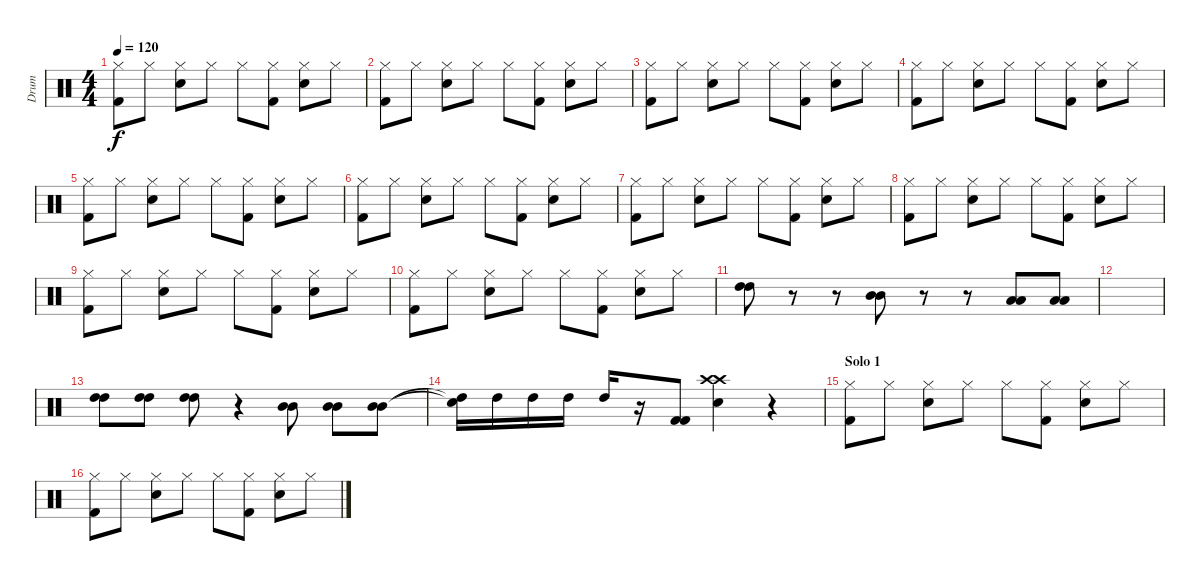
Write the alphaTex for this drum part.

\track ("Drum" "Drum") {instrument percussion}
\staff {score}
\articulation defaults
\ts (4 4)
\tempo 120
\clef neutral
\ks c
("Kick (hit) 2" "Hi-Hat (closed)").8{dy f} "Hi-Hat (closed)".8 ("Snare (hit) 2" "Hi-Hat (closed)").8 "Hi-Hat (closed)".8 "Hi-Hat (closed)".8 ("Kick (hit) 2" "Hi-Hat (closed)").8 ("Snare (hit) 2" "Hi-Hat (closed)").8 "Hi-Hat (closed)".8 |
("Kick (hit) 2" "Hi-Hat (closed)").8 "Hi-Hat (closed)".8 ("Snare (hit) 2" "Hi-Hat (closed)").8 "Hi-Hat (closed)".8 "Hi-Hat (closed)".8 ("Kick (hit) 2" "Hi-Hat (closed)").8 ("Snare (hit) 2" "Hi-Hat (closed)").8 "Hi-Hat (closed)".8 |
("Kick (hit) 2" "Hi-Hat (closed)").8 "Hi-Hat (closed)".8 ("Snare (hit) 2" "Hi-Hat (closed)").8 "Hi-Hat (closed)".8 "Hi-Hat (closed)".8 ("Kick (hit) 2" "Hi-Hat (closed)").8 ("Snare (hit) 2" "Hi-Hat (closed)").8 "Hi-Hat (closed)".8 |
("Kick (hit) 2" "Hi-Hat (closed)").8 "Hi-Hat (closed)".8 ("Snare (hit) 2" "Hi-Hat (closed)").8 "Hi-Hat (closed)".8 "Hi-Hat (closed)".8 ("Kick (hit) 2" "Hi-Hat (closed)").8 ("Snare (hit) 2" "Hi-Hat (closed)").8 "Hi-Hat (closed)".8 |
("Kick (hit) 2" "Hi-Hat (closed)").8 "Hi-Hat (closed)".8 ("Snare (hit) 2" "Hi-Hat (closed)").8 "Hi-Hat (closed)".8 "Hi-Hat (closed)".8 ("Kick (hit) 2" "Hi-Hat (closed)").8 ("Snare (hit) 2" "Hi-Hat (closed)").8 "Hi-Hat (closed)".8 |
("Kick (hit) 2" "Hi-Hat (closed)").8 "Hi-Hat (closed)".8 ("Snare (hit) 2" "Hi-Hat (closed)").8 "Hi-Hat (closed)".8 "Hi-Hat (closed)".8 ("Kick (hit) 2" "Hi-Hat (closed)").8 ("Snare (hit) 2" "Hi-Hat (closed)").8 "Hi-Hat (closed)".8 |
("Kick (hit) 2" "Hi-Hat (closed)").8 "Hi-Hat (closed)".8 ("Snare (hit) 2" "Hi-Hat (closed)").8 "Hi-Hat (closed)".8 "Hi-Hat (closed)".8 ("Kick (hit) 2" "Hi-Hat (closed)").8 ("Snare (hit) 2" "Hi-Hat (closed)").8 "Hi-Hat (closed)".8 |
("Kick (hit) 2" "Hi-Hat (closed)").8 "Hi-Hat (closed)".8 ("Snare (hit) 2" "Hi-Hat (closed)").8 "Hi-Hat (closed)".8 "Hi-Hat (closed)".8 ("Kick (hit) 2" "Hi-Hat (closed)").8 ("Snare (hit) 2" "Hi-Hat (closed)").8 "Hi-Hat (closed)".8 |
("Kick (hit) 2" "Hi-Hat (closed)").8 "Hi-Hat (closed)".8 ("Snare (hit) 2" "Hi-Hat (closed)").8 "Hi-Hat (closed)".8 "Hi-Hat (closed)".8 ("Kick (hit) 2" "Hi-Hat (closed)").8 ("Snare (hit) 2" "Hi-Hat (closed)").8 "Hi-Hat (closed)".8 |
("Kick (hit) 2" "Hi-Hat (closed)").8 "Hi-Hat (closed)".8 ("Snare (hit) 2" "Hi-Hat (closed)").8 "Hi-Hat (closed)".8 "Hi-Hat (closed)".8 ("Kick (hit) 2" "Hi-Hat (closed)").8 ("Snare (hit) 2" "Hi-Hat (closed)").8 "Hi-Hat (closed)".8 |
("High Tom (hit)" "High Tom (hit)").8 r.8 r.8 ("Mid Tom (hit)" "Mid Tom (hit)").8 r.8 r.8 ("Low Floor Tom (hit)" "Low Floor Tom (hit)").8 ("Low Floor Tom (hit)" "Low Floor Tom (hit)").8 |
|
("High Tom (hit)" "High Tom (hit)").8 ("High Tom (hit)" "High Tom (hit)").8 ("High Tom (hit)" "High Tom (hit)").8 r.4 ("Mid Tom (hit)" "Mid Tom (hit)").8 ("Mid Tom (hit)" "Mid Tom (hit)").8 ("Mid Tom (hit)" "Mid Tom (hit)").8 |
("High Tom (hit)"{t} "Snare (hit)"{t}).16 "High Tom (hit)".16 "High Tom (hit)".16 "High Tom (hit)".16 "High Tom (hit)".16 r.16 ("Kick (hit) 2" "Kick (hit) 2").8 ("Crash high (hit)" "Crash high (hit)" "Snare (hit) 2").4 r.4 |
\section ("" "Solo 1")
("Kick (hit) 2" "Hi-Hat (closed)").8 "Hi-Hat (closed)".8 ("Snare (hit) 2" "Hi-Hat (closed)").8 "Hi-Hat (closed)".8 "Hi-Hat (closed)".8 ("Kick (hit) 2" "Hi-Hat (closed)").8 ("Snare (hit) 2" "Hi-Hat (closed)").8 "Hi-Hat (closed)".8 |
("Kick (hit) 2" "Hi-Hat (closed)").8 "Hi-Hat (closed)".8 ("Snare (hit) 2" "Hi-Hat (closed)").8 "Hi-Hat (closed)".8 "Hi-Hat (closed)".8 ("Kick (hit) 2" "Hi-Hat (closed)").8 ("Snare (hit) 2" "Hi-Hat (closed)").8 "Hi-Hat (closed)".8
